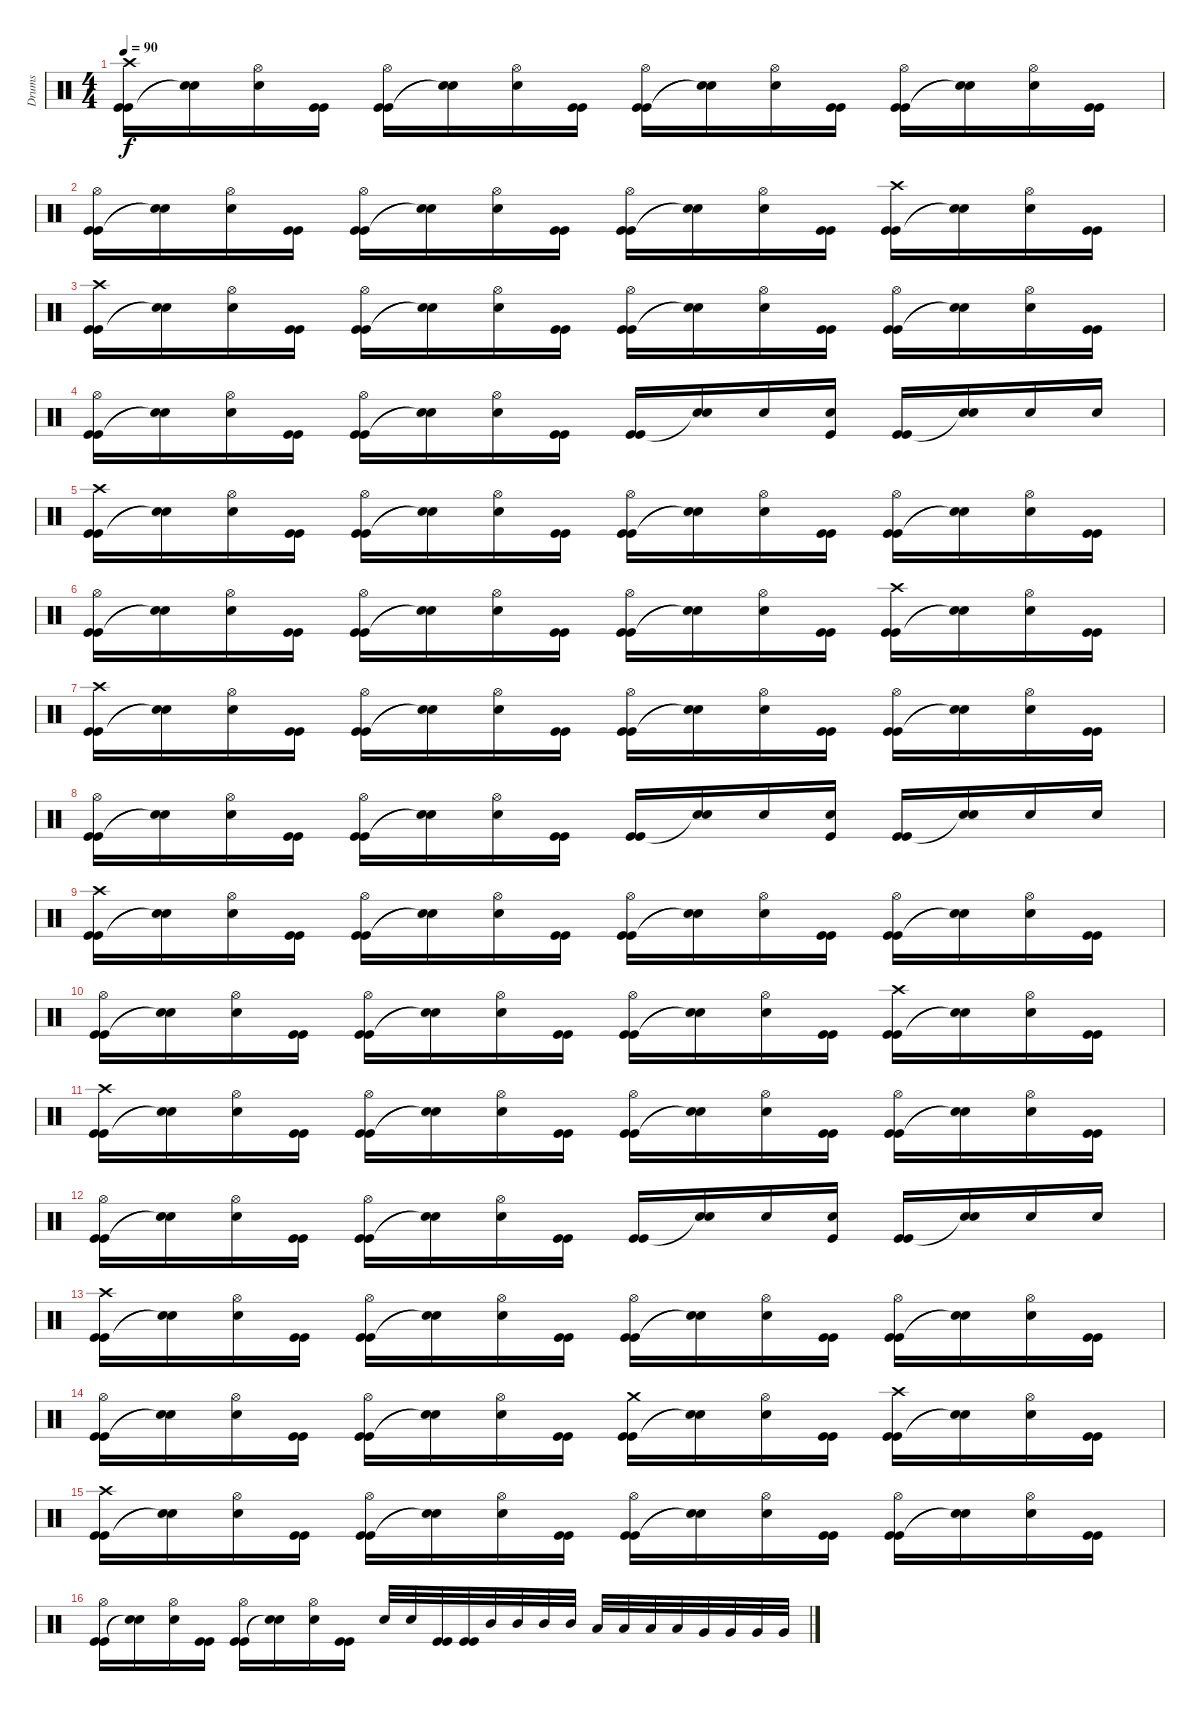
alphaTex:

\track ("Drums" "Drums") {instrument percussion}
\staff {score}
\articulation defaults
\ts (4 4)
\tempo 90
\clef neutral
\ks c
("Kick (hit)" "Kick (hit)" "Crash high (hit)").16{dy f} ("Snare (hit)"{t} "Snare (hit)"{t}).16 ("Snare (hit) 2" "Hi-Hat (open)").16 ("Kick (hit)" "Kick (hit)").16 ("Kick (hit)" "Kick (hit)" "Hi-Hat (open)").16 ("Snare (hit)"{t} "Snare (hit)"{t}).16 ("Snare (hit) 2" "Hi-Hat (open)").16 ("Kick (hit)" "Kick (hit)").16 ("Kick (hit)" "Kick (hit)" "Hi-Hat (open)").16 ("Snare (hit)"{t} "Snare (hit)"{t}).16 ("Snare (hit) 2" "Hi-Hat (open)").16 ("Kick (hit)" "Kick (hit)").16 ("Kick (hit)" "Kick (hit)" "Hi-Hat (open)").16 ("Snare (hit)"{t} "Snare (hit)"{t}).16 ("Snare (hit) 2" "Hi-Hat (open)").16 ("Kick (hit)" "Kick (hit)").16 |
("Kick (hit)" "Kick (hit)" "Hi-Hat (open)").16 ("Snare (hit)"{t} "Snare (hit)"{t}).16 ("Snare (hit) 2" "Hi-Hat (open)").16 ("Kick (hit)" "Kick (hit)").16 ("Kick (hit)" "Kick (hit)" "Hi-Hat (open)").16 ("Snare (hit)"{t} "Snare (hit)"{t}).16 ("Snare (hit) 2" "Hi-Hat (open)").16 ("Kick (hit)" "Kick (hit)").16 ("Kick (hit)" "Kick (hit)" "Hi-Hat (open)").16 ("Snare (hit)"{t} "Snare (hit)"{t}).16 ("Snare (hit) 2" "Hi-Hat (open)").16 ("Kick (hit)" "Kick (hit)").16 ("Kick (hit)" "Kick (hit)" "Crash high (hit)").16 ("Snare (hit)"{t} "Snare (hit)"{t}).16 ("Snare (hit) 2" "Hi-Hat (open)").16 ("Kick (hit)" "Kick (hit)").16 |
("Kick (hit)" "Kick (hit)" "Crash high (hit)").16 ("Snare (hit)"{t} "Snare (hit)"{t}).16 ("Snare (hit) 2" "Hi-Hat (open)").16 ("Kick (hit)" "Kick (hit)").16 ("Kick (hit)" "Kick (hit)" "Hi-Hat (open)").16 ("Snare (hit)"{t} "Snare (hit)"{t}).16 ("Snare (hit) 2" "Hi-Hat (open)").16 ("Kick (hit)" "Kick (hit)").16 ("Kick (hit)" "Kick (hit)" "Hi-Hat (open)").16 ("Snare (hit)"{t} "Snare (hit)"{t}).16 ("Snare (hit) 2" "Hi-Hat (open)").16 ("Kick (hit)" "Kick (hit)").16 ("Kick (hit)" "Kick (hit)" "Hi-Hat (open)").16 ("Snare (hit)"{t} "Snare (hit)"{t}).16 ("Snare (hit) 2" "Hi-Hat (open)").16 ("Kick (hit)" "Kick (hit)").16 |
("Kick (hit)" "Kick (hit)" "Hi-Hat (open)").16 ("Snare (hit)"{t} "Snare (hit)"{t}).16 ("Snare (hit) 2" "Hi-Hat (open)").16 ("Kick (hit)" "Kick (hit)").16 ("Kick (hit)" "Kick (hit)" "Hi-Hat (open)").16 ("Snare (hit)"{t} "Snare (hit)"{t}).16 ("Snare (hit) 2" "Hi-Hat (open)").16 ("Kick (hit)" "Kick (hit)").16 ("Kick (hit)" "Kick (hit)").16 ("Snare (hit) 2" "Snare (hit)"{t}).16 "Snare (hit) 2".16 ("Snare (hit) 2" "Kick (hit)").16 ("Kick (hit)" "Kick (hit)").16 ("Snare (hit) 2" "Snare (hit)"{t}).16 "Snare (hit) 2".16 "Snare (hit) 2".16 |
("Kick (hit)" "Kick (hit)" "Crash high (hit)").16 ("Snare (hit)"{t} "Snare (hit)"{t}).16 ("Snare (hit) 2" "Hi-Hat (open)").16 ("Kick (hit)" "Kick (hit)").16 ("Kick (hit)" "Kick (hit)" "Hi-Hat (open)").16 ("Snare (hit)"{t} "Snare (hit)"{t}).16 ("Snare (hit) 2" "Hi-Hat (open)").16 ("Kick (hit)" "Kick (hit)").16 ("Kick (hit)" "Kick (hit)" "Hi-Hat (open)").16 ("Snare (hit)"{t} "Snare (hit)"{t}).16 ("Snare (hit) 2" "Hi-Hat (open)").16 ("Kick (hit)" "Kick (hit)").16 ("Kick (hit)" "Kick (hit)" "Hi-Hat (open)").16 ("Snare (hit)"{t} "Snare (hit)"{t}).16 ("Snare (hit) 2" "Hi-Hat (open)").16 ("Kick (hit)" "Kick (hit)").16 |
("Kick (hit)" "Kick (hit)" "Hi-Hat (open)").16 ("Snare (hit)"{t} "Snare (hit)"{t}).16 ("Snare (hit) 2" "Hi-Hat (open)").16 ("Kick (hit)" "Kick (hit)").16 ("Kick (hit)" "Kick (hit)" "Hi-Hat (open)").16 ("Snare (hit)"{t} "Snare (hit)"{t}).16 ("Snare (hit) 2" "Hi-Hat (open)").16 ("Kick (hit)" "Kick (hit)").16 ("Kick (hit)" "Kick (hit)" "Hi-Hat (open)").16 ("Snare (hit)"{t} "Snare (hit)"{t}).16 ("Snare (hit) 2" "Hi-Hat (open)").16 ("Kick (hit)" "Kick (hit)").16 ("Kick (hit)" "Kick (hit)" "Crash high (hit)").16 ("Snare (hit)"{t} "Snare (hit)"{t}).16 ("Snare (hit) 2" "Hi-Hat (open)").16 ("Kick (hit)" "Kick (hit)").16 |
("Kick (hit)" "Kick (hit)" "Crash high (hit)").16 ("Snare (hit)"{t} "Snare (hit)"{t}).16 ("Snare (hit) 2" "Hi-Hat (open)").16 ("Kick (hit)" "Kick (hit)").16 ("Kick (hit)" "Kick (hit)" "Hi-Hat (open)").16 ("Snare (hit)"{t} "Snare (hit)"{t}).16 ("Snare (hit) 2" "Hi-Hat (open)").16 ("Kick (hit)" "Kick (hit)").16 ("Kick (hit)" "Kick (hit)" "Hi-Hat (open)").16 ("Snare (hit)"{t} "Snare (hit)"{t}).16 ("Snare (hit) 2" "Hi-Hat (open)").16 ("Kick (hit)" "Kick (hit)").16 ("Kick (hit)" "Kick (hit)" "Hi-Hat (open)").16 ("Snare (hit)"{t} "Snare (hit)"{t}).16 ("Snare (hit) 2" "Hi-Hat (open)").16 ("Kick (hit)" "Kick (hit)").16 |
("Kick (hit)" "Kick (hit)" "Hi-Hat (open)").16 ("Snare (hit)"{t} "Snare (hit)"{t}).16 ("Snare (hit) 2" "Hi-Hat (open)").16 ("Kick (hit)" "Kick (hit)").16 ("Kick (hit)" "Kick (hit)" "Hi-Hat (open)").16 ("Snare (hit)"{t} "Snare (hit)"{t}).16 ("Snare (hit) 2" "Hi-Hat (open)").16 ("Kick (hit)" "Kick (hit)").16 ("Kick (hit)" "Kick (hit)").16 ("Snare (hit) 2" "Snare (hit)"{t}).16 "Snare (hit) 2".16 ("Snare (hit) 2" "Kick (hit)").16 ("Kick (hit)" "Kick (hit)").16 ("Snare (hit) 2" "Snare (hit)"{t}).16 "Snare (hit) 2".16 "Snare (hit) 2".16 |
("Kick (hit)" "Kick (hit)" "Crash high (hit)").16 ("Snare (hit)"{t} "Snare (hit)"{t}).16 ("Snare (hit) 2" "Hi-Hat (open)").16 ("Kick (hit)" "Kick (hit)").16 ("Kick (hit)" "Kick (hit)" "Hi-Hat (open)").16 ("Snare (hit)"{t} "Snare (hit)"{t}).16 ("Snare (hit) 2" "Hi-Hat (open)").16 ("Kick (hit)" "Kick (hit)").16 ("Kick (hit)" "Kick (hit)" "Hi-Hat (open)").16 ("Snare (hit)"{t} "Snare (hit)"{t}).16 ("Snare (hit) 2" "Hi-Hat (open)").16 ("Kick (hit)" "Kick (hit)").16 ("Kick (hit)" "Kick (hit)" "Hi-Hat (open)").16 ("Snare (hit)"{t} "Snare (hit)"{t}).16 ("Snare (hit) 2" "Hi-Hat (open)").16 ("Kick (hit)" "Kick (hit)").16 |
("Kick (hit)" "Kick (hit)" "Hi-Hat (open)").16 ("Snare (hit)"{t} "Snare (hit)"{t}).16 ("Snare (hit) 2" "Hi-Hat (open)").16 ("Kick (hit)" "Kick (hit)").16 ("Kick (hit)" "Kick (hit)" "Hi-Hat (open)").16 ("Snare (hit)"{t} "Snare (hit)"{t}).16 ("Snare (hit) 2" "Hi-Hat (open)").16 ("Kick (hit)" "Kick (hit)").16 ("Kick (hit)" "Kick (hit)" "Hi-Hat (open)").16 ("Snare (hit)"{t} "Snare (hit)"{t}).16 ("Snare (hit) 2" "Hi-Hat (open)").16 ("Kick (hit)" "Kick (hit)").16 ("Kick (hit)" "Kick (hit)" "Crash high (hit)").16 ("Snare (hit)"{t} "Snare (hit)"{t}).16 ("Snare (hit) 2" "Hi-Hat (open)").16 ("Kick (hit)" "Kick (hit)").16 |
("Kick (hit)" "Kick (hit)" "Crash high (hit)").16 ("Snare (hit)"{t} "Snare (hit)"{t}).16 ("Snare (hit) 2" "Hi-Hat (open)").16 ("Kick (hit)" "Kick (hit)").16 ("Kick (hit)" "Kick (hit)" "Hi-Hat (open)").16 ("Snare (hit)"{t} "Snare (hit)"{t}).16 ("Snare (hit) 2" "Hi-Hat (open)").16 ("Kick (hit)" "Kick (hit)").16 ("Kick (hit)" "Kick (hit)" "Hi-Hat (open)").16 ("Snare (hit)"{t} "Snare (hit)"{t}).16 ("Snare (hit) 2" "Hi-Hat (open)").16 ("Kick (hit)" "Kick (hit)").16 ("Kick (hit)" "Kick (hit)" "Hi-Hat (open)").16 ("Snare (hit)"{t} "Snare (hit)"{t}).16 ("Snare (hit) 2" "Hi-Hat (open)").16 ("Kick (hit)" "Kick (hit)").16 |
("Kick (hit)" "Kick (hit)" "Hi-Hat (open)").16 ("Snare (hit)"{t} "Snare (hit)"{t}).16 ("Snare (hit) 2" "Hi-Hat (open)").16 ("Kick (hit)" "Kick (hit)").16 ("Kick (hit)" "Kick (hit)" "Hi-Hat (open)").16 ("Snare (hit)"{t} "Snare (hit)"{t}).16 ("Snare (hit) 2" "Hi-Hat (open)").16 ("Kick (hit)" "Kick (hit)").16 ("Kick (hit)" "Kick (hit)").16 ("Snare (hit) 2" "Snare (hit)"{t}).16 "Snare (hit) 2".16 ("Snare (hit) 2" "Kick (hit)").16 ("Kick (hit)" "Kick (hit)").16 ("Snare (hit) 2" "Snare (hit)"{t}).16 "Snare (hit) 2".16 "Snare (hit) 2".16 |
("Kick (hit)" "Kick (hit)" "Crash high (hit)").16 ("Snare (hit)"{t} "Snare (hit)"{t}).16 ("Snare (hit) 2" "Hi-Hat (open)").16 ("Kick (hit)" "Kick (hit)").16 ("Kick (hit)" "Kick (hit)" "Hi-Hat (open)").16 ("Snare (hit)"{t} "Snare (hit)"{t}).16 ("Snare (hit) 2" "Hi-Hat (open)").16 ("Kick (hit)" "Kick (hit)").16 ("Kick (hit)" "Kick (hit)" "Hi-Hat (open)").16 ("Snare (hit)"{t} "Snare (hit)"{t}).16 ("Snare (hit) 2" "Hi-Hat (open)").16 ("Kick (hit)" "Kick (hit)").16 ("Kick (hit)" "Kick (hit)" "Hi-Hat (open)").16 ("Snare (hit)"{t} "Snare (hit)"{t}).16 ("Snare (hit) 2" "Hi-Hat (open)").16 ("Kick (hit)" "Kick (hit)").16 |
("Kick (hit)" "Kick (hit)" "Hi-Hat (open)").16 ("Snare (hit)"{t} "Snare (hit)"{t}).16 ("Snare (hit) 2" "Hi-Hat (open)").16 ("Kick (hit)" "Kick (hit)").16 ("Kick (hit)" "Kick (hit)" "Hi-Hat (open)").16 ("Snare (hit)"{t} "Snare (hit)"{t}).16 ("Snare (hit) 2" "Hi-Hat (open)").16 ("Kick (hit)" "Kick (hit)").16 ("Kick (hit)" "Kick (hit)" "Crash medium (hit)").16 ("Snare (hit)"{t} "Snare (hit)"{t}).16 ("Snare (hit) 2" "Hi-Hat (open)").16 ("Kick (hit)" "Kick (hit)").16 ("Kick (hit)" "Kick (hit)" "Crash high (hit)").16 ("Snare (hit)"{t} "Snare (hit)"{t}).16 ("Snare (hit) 2" "Hi-Hat (open)").16 ("Kick (hit)" "Kick (hit)").16 |
("Kick (hit)" "Kick (hit)" "Crash high (hit)").16 ("Snare (hit)"{t} "Snare (hit)"{t}).16 ("Snare (hit) 2" "Hi-Hat (open)").16 ("Kick (hit)" "Kick (hit)").16 ("Kick (hit)" "Kick (hit)" "Hi-Hat (open)").16 ("Snare (hit)"{t} "Snare (hit)"{t}).16 ("Snare (hit) 2" "Hi-Hat (open)").16 ("Kick (hit)" "Kick (hit)").16 ("Kick (hit)" "Kick (hit)" "Hi-Hat (open)").16 ("Snare (hit)"{t} "Snare (hit)"{t}).16 ("Snare (hit) 2" "Hi-Hat (open)").16 ("Kick (hit)" "Kick (hit)").16 ("Kick (hit)" "Kick (hit)" "Hi-Hat (open)").16 ("Snare (hit)"{t} "Snare (hit)"{t}).16 ("Snare (hit) 2" "Hi-Hat (open)").16 ("Kick (hit)" "Kick (hit)").16 |
("Kick (hit)" "Kick (hit)" "Hi-Hat (open)").16 ("Snare (hit)"{t} "Snare (hit)"{t}).16 ("Snare (hit) 2" "Hi-Hat (open)").16 ("Kick (hit)" "Kick (hit)").16 ("Kick (hit)" "Kick (hit)" "Hi-Hat (open)").16 ("Snare (hit)"{t} "Snare (hit)"{t}).16 ("Snare (hit) 2" "Hi-Hat (open)").16 ("Kick (hit)" "Kick (hit)").16 "Snare (hit) 2".32 "Snare (hit) 2".32 ("Kick (hit)" "Kick (hit)").32 ("Kick (hit)" "Kick (hit)").32 "Mid Tom (hit)".32 "Mid Tom (hit)".32 "Mid Tom (hit)".32 "Mid Tom (hit)".32 "Low Tom (hit)".32 "Low Tom (hit)".32 "Low Tom (hit)".32 "Low Tom (hit)".32 "Very Low Tom (hit)".32 "Very Low Tom (hit)".32 "Very Low Tom (hit)".32 "Very Low Tom (hit)".32
